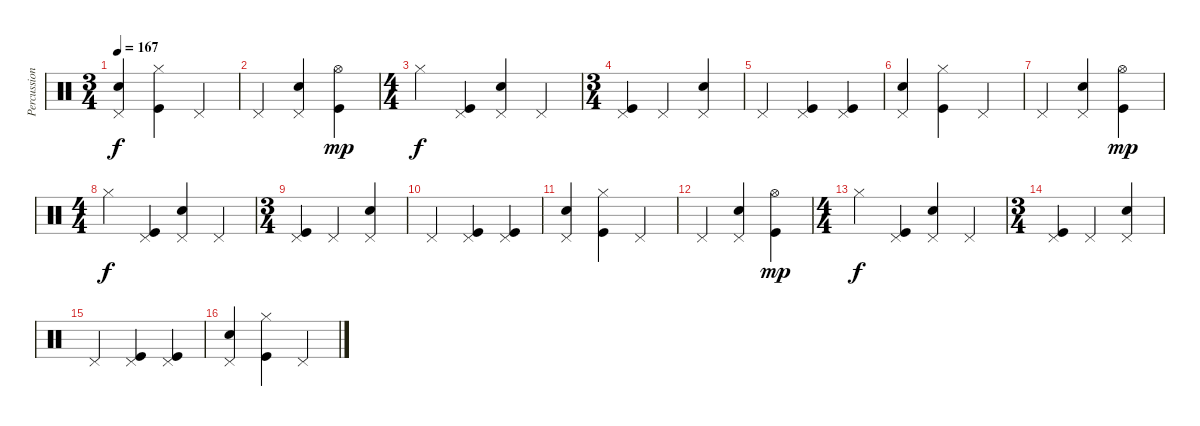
\track ("Percussion" "Percussion") {instrument percussion}
\staff {score}
\articulation defaults
\ts (3 4)
\tempo 167
\clef neutral
\ks c
("Pedal Hi-Hat (hit)" "Snare (hit) 2").4{dy f} ("Hi-Hat (closed)" "Kick (hit)").4 "Pedal Hi-Hat (hit)".4 |
"Pedal Hi-Hat (hit)".4 ("Pedal Hi-Hat (hit)" "Snare (hit) 2").4 ("Hi-Hat (open)" "Kick (hit)").4{dy mp} |
\ts (4 4)
"Hi-Hat (closed)".4{dy f} ("Pedal Hi-Hat (hit)" "Kick (hit)").4 ("Pedal Hi-Hat (hit)" "Snare (hit) 2").4 "Pedal Hi-Hat (hit)".4 |
\ts (3 4)
("Pedal Hi-Hat (hit)" "Kick (hit)").4 "Pedal Hi-Hat (hit)".4 ("Pedal Hi-Hat (hit)" "Snare (hit) 2").4 |
"Pedal Hi-Hat (hit)".4 ("Pedal Hi-Hat (hit)" "Kick (hit)").4 ("Pedal Hi-Hat (hit)" "Kick (hit)").4 |
("Pedal Hi-Hat (hit)" "Snare (hit) 2").4 ("Hi-Hat (closed)" "Kick (hit)").4 "Pedal Hi-Hat (hit)".4 |
"Pedal Hi-Hat (hit)".4 ("Pedal Hi-Hat (hit)" "Snare (hit) 2").4 ("Hi-Hat (open)" "Kick (hit)").4{dy mp} |
\ts (4 4)
"Hi-Hat (closed)".4{dy f} ("Pedal Hi-Hat (hit)" "Kick (hit)").4 ("Pedal Hi-Hat (hit)" "Snare (hit) 2").4 "Pedal Hi-Hat (hit)".4 |
\ts (3 4)
("Pedal Hi-Hat (hit)" "Kick (hit)").4 "Pedal Hi-Hat (hit)".4 ("Pedal Hi-Hat (hit)" "Snare (hit) 2").4 |
"Pedal Hi-Hat (hit)".4 ("Pedal Hi-Hat (hit)" "Kick (hit)").4 ("Pedal Hi-Hat (hit)" "Kick (hit)").4 |
("Pedal Hi-Hat (hit)" "Snare (hit) 2").4 ("Hi-Hat (closed)" "Kick (hit)").4 "Pedal Hi-Hat (hit)".4 |
"Pedal Hi-Hat (hit)".4 ("Pedal Hi-Hat (hit)" "Snare (hit) 2").4 ("Hi-Hat (open)" "Kick (hit)").4{dy mp} |
\ts (4 4)
"Hi-Hat (closed)".4{dy f} ("Pedal Hi-Hat (hit)" "Kick (hit)").4 ("Pedal Hi-Hat (hit)" "Snare (hit) 2").4 "Pedal Hi-Hat (hit)".4 |
\ts (3 4)
("Pedal Hi-Hat (hit)" "Kick (hit)").4 "Pedal Hi-Hat (hit)".4 ("Pedal Hi-Hat (hit)" "Snare (hit) 2").4 |
"Pedal Hi-Hat (hit)".4 ("Pedal Hi-Hat (hit)" "Kick (hit)").4 ("Pedal Hi-Hat (hit)" "Kick (hit)").4 |
("Pedal Hi-Hat (hit)" "Snare (hit) 2").4 ("Hi-Hat (closed)" "Kick (hit)").4 "Pedal Hi-Hat (hit)".4
